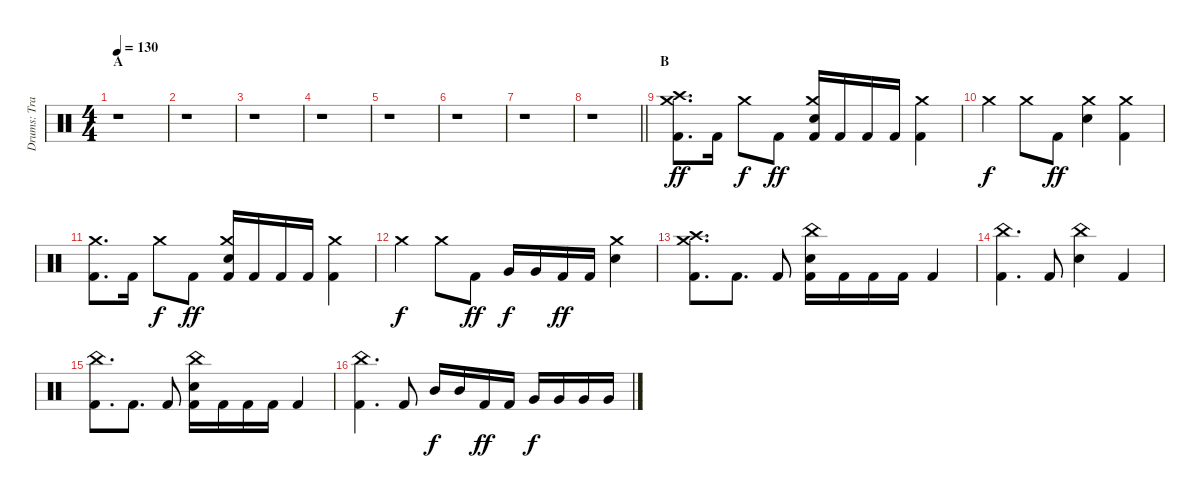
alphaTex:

\track ("Drums: Travis Clarke" "Drums: Tra") {instrument percussion}
\staff {score}
\articulation defaults
\ts (4 4)
\section ("" "A")
\tempo 130
\clef neutral
\ks c
r.1{dy ff} |
r.1 |
r.1 |
r.1 |
r.1 |
r.1 |
r.1 |
\barLineRight lightlight
r.1 |
\section ("" "B")
("Kick (hit) 2" "Crash high (hit)" "Crash medium (hit)").8{d} "Kick (hit) 2".16 "Crash medium (hit)".8{dy f} "Kick (hit) 2".8{dy ff} ("Kick (hit) 2" "Snare (hit) 2" "Crash medium (hit)").16 "Kick (hit) 2".16 "Kick (hit) 2".16 "Kick (hit) 2".16 ("Kick (hit) 2" "Crash medium (hit)").4 |
"Crash medium (hit)".4{dy f} "Crash medium (hit)".8 "Kick (hit) 2".8{dy ff} ("Snare (hit) 2" "Crash medium (hit)").4 ("Kick (hit) 2" "Crash medium (hit)").4 |
("Kick (hit) 2" "Crash medium (hit)").8{d} "Kick (hit) 2".16 "Crash medium (hit)".8{dy f} "Kick (hit) 2".8{dy ff} ("Kick (hit) 2" "Snare (hit) 2" "Crash medium (hit)").16 "Kick (hit) 2".16 "Kick (hit) 2".16 "Kick (hit) 2".16 ("Kick (hit) 2" "Crash medium (hit)").4 |
"Crash medium (hit)".4{dy f} "Crash medium (hit)".8 "Kick (hit) 2".8{dy ff} "Very Low Tom (hit)".16{dy f} "Very Low Tom (hit)".16 "Kick (hit) 2".16{dy ff} "Kick (hit) 2".16 ("Snare (hit) 2" "Crash medium (hit)").4 |
("Kick (hit) 2" "Crash high (hit)" "Crash medium (hit)").8{d} "Kick (hit) 2".8{d} "Kick (hit) 2".8 ("Kick (hit) 2" "Snare (hit) 2" "China (hit)").16 "Kick (hit) 2".16 "Kick (hit) 2".16 "Kick (hit) 2".16 "Kick (hit) 2".4 |
("Kick (hit) 2" "China (hit)").4{d} "Kick (hit) 2".8 ("Snare (hit) 2" "China (hit)").4 "Kick (hit) 2".4 |
("Kick (hit) 2" "China (hit)").8{d} "Kick (hit) 2".8{d} "Kick (hit) 2".8 ("Kick (hit) 2" "Snare (hit) 2" "China (hit)").16 "Kick (hit) 2".16 "Kick (hit) 2".16 "Kick (hit) 2".16 "Kick (hit) 2".4 |
("Kick (hit) 2" "China (hit)").4{d} "Kick (hit) 2".8 "Mid Tom (hit)".16{dy f} "Mid Tom (hit)".16 "Kick (hit) 2".16{dy ff} "Kick (hit) 2".16 "Very Low Tom (hit)".16{dy f} "Very Low Tom (hit)".16 "Very Low Tom (hit)".16 "Very Low Tom (hit)".16
